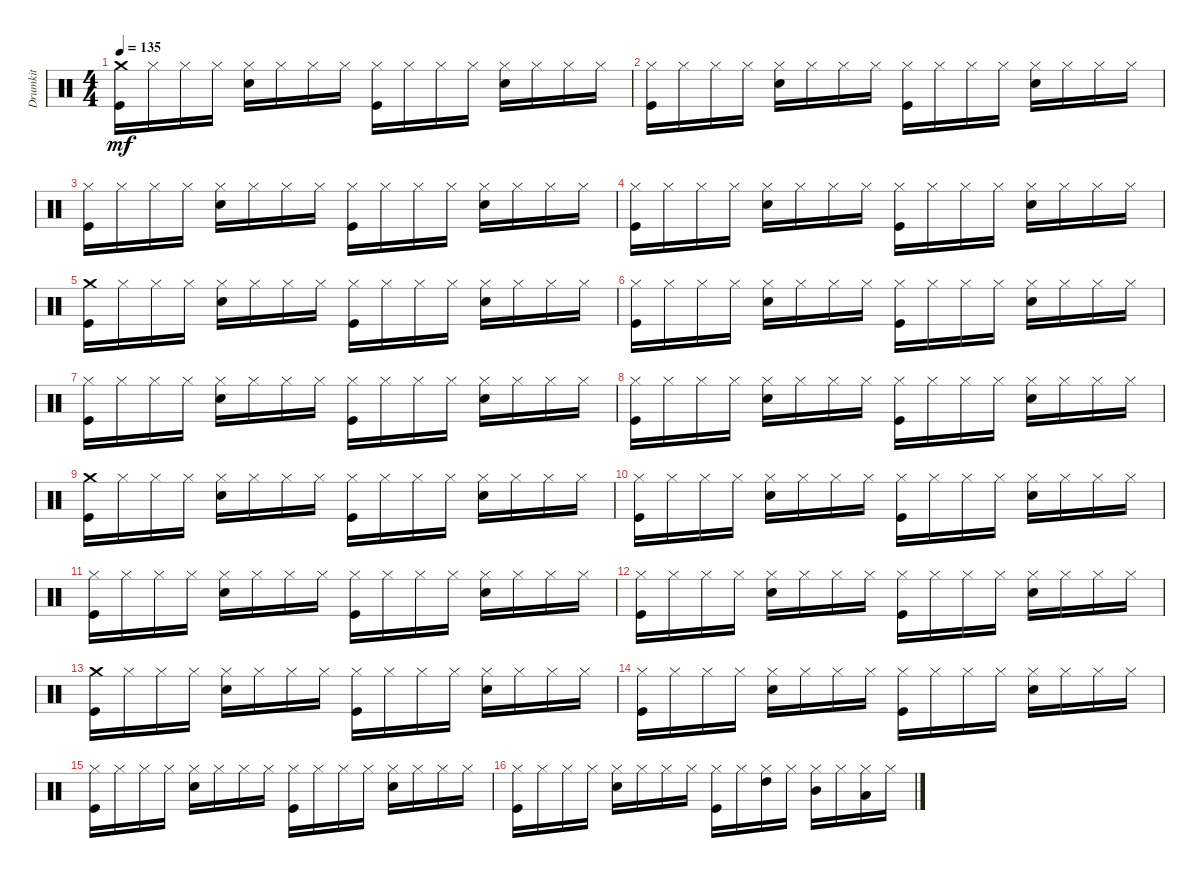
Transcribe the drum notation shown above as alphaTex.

\track ("Drumkit" "Drumkit") {instrument percussion}
\staff {score}
\articulation defaults
\ts (4 4)
\tempo 135
\clef neutral
\ks c
("Crash medium (hit)" "Kick (hit)").16{dy mf} "Hi-Hat (closed)".16 "Hi-Hat (closed)".16 "Hi-Hat (closed)".16 ("Hi-Hat (closed)" "Snare (hit) 2").16 "Hi-Hat (closed)".16 "Hi-Hat (closed)".16 "Hi-Hat (closed)".16 ("Hi-Hat (closed)" "Kick (hit)").16 "Hi-Hat (closed)".16 "Hi-Hat (closed)".16 "Hi-Hat (closed)".16 ("Hi-Hat (closed)" "Snare (hit) 2").16 "Hi-Hat (closed)".16 "Hi-Hat (closed)".16 "Hi-Hat (closed)".16 |
("Hi-Hat (closed)" "Kick (hit)").16 "Hi-Hat (closed)".16 "Hi-Hat (closed)".16 "Hi-Hat (closed)".16 ("Hi-Hat (closed)" "Snare (hit) 2").16 "Hi-Hat (closed)".16 "Hi-Hat (closed)".16 "Hi-Hat (closed)".16 ("Hi-Hat (closed)" "Kick (hit)").16 "Hi-Hat (closed)".16 "Hi-Hat (closed)".16 "Hi-Hat (closed)".16 ("Hi-Hat (closed)" "Snare (hit) 2").16 "Hi-Hat (closed)".16 "Hi-Hat (closed)".16 "Hi-Hat (closed)".16 |
("Hi-Hat (closed)" "Kick (hit)").16 "Hi-Hat (closed)".16 "Hi-Hat (closed)".16 "Hi-Hat (closed)".16 ("Hi-Hat (closed)" "Snare (hit) 2").16 "Hi-Hat (closed)".16 "Hi-Hat (closed)".16 "Hi-Hat (closed)".16 ("Hi-Hat (closed)" "Kick (hit)").16 "Hi-Hat (closed)".16 "Hi-Hat (closed)".16 "Hi-Hat (closed)".16 ("Hi-Hat (closed)" "Snare (hit) 2").16 "Hi-Hat (closed)".16 "Hi-Hat (closed)".16 "Hi-Hat (closed)".16 |
("Hi-Hat (closed)" "Kick (hit)").16 "Hi-Hat (closed)".16 "Hi-Hat (closed)".16 "Hi-Hat (closed)".16 ("Hi-Hat (closed)" "Snare (hit) 2").16 "Hi-Hat (closed)".16 "Hi-Hat (closed)".16 "Hi-Hat (closed)".16 ("Hi-Hat (closed)" "Kick (hit)").16 "Hi-Hat (closed)".16 "Hi-Hat (closed)".16 "Hi-Hat (closed)".16 ("Hi-Hat (closed)" "Snare (hit) 2").16 "Hi-Hat (closed)".16 "Hi-Hat (closed)".16 "Hi-Hat (closed)".16 |
("Crash medium (hit)" "Kick (hit)").16 "Hi-Hat (closed)".16 "Hi-Hat (closed)".16 "Hi-Hat (closed)".16 ("Hi-Hat (closed)" "Snare (hit) 2").16 "Hi-Hat (closed)".16 "Hi-Hat (closed)".16 "Hi-Hat (closed)".16 ("Hi-Hat (closed)" "Kick (hit)").16 "Hi-Hat (closed)".16 "Hi-Hat (closed)".16 "Hi-Hat (closed)".16 ("Hi-Hat (closed)" "Snare (hit) 2").16 "Hi-Hat (closed)".16 "Hi-Hat (closed)".16 "Hi-Hat (closed)".16 |
("Hi-Hat (closed)" "Kick (hit)").16 "Hi-Hat (closed)".16 "Hi-Hat (closed)".16 "Hi-Hat (closed)".16 ("Hi-Hat (closed)" "Snare (hit) 2").16 "Hi-Hat (closed)".16 "Hi-Hat (closed)".16 "Hi-Hat (closed)".16 ("Hi-Hat (closed)" "Kick (hit)").16 "Hi-Hat (closed)".16 "Hi-Hat (closed)".16 "Hi-Hat (closed)".16 ("Hi-Hat (closed)" "Snare (hit) 2").16 "Hi-Hat (closed)".16 "Hi-Hat (closed)".16 "Hi-Hat (closed)".16 |
("Hi-Hat (closed)" "Kick (hit)").16 "Hi-Hat (closed)".16 "Hi-Hat (closed)".16 "Hi-Hat (closed)".16 ("Hi-Hat (closed)" "Snare (hit) 2").16 "Hi-Hat (closed)".16 "Hi-Hat (closed)".16 "Hi-Hat (closed)".16 ("Hi-Hat (closed)" "Kick (hit)").16 "Hi-Hat (closed)".16 "Hi-Hat (closed)".16 "Hi-Hat (closed)".16 ("Hi-Hat (closed)" "Snare (hit) 2").16 "Hi-Hat (closed)".16 "Hi-Hat (closed)".16 "Hi-Hat (closed)".16 |
("Hi-Hat (closed)" "Kick (hit)").16 "Hi-Hat (closed)".16 "Hi-Hat (closed)".16 "Hi-Hat (closed)".16 ("Hi-Hat (closed)" "Snare (hit) 2").16 "Hi-Hat (closed)".16 "Hi-Hat (closed)".16 "Hi-Hat (closed)".16 ("Hi-Hat (closed)" "Kick (hit)").16 "Hi-Hat (closed)".16 "Hi-Hat (closed)".16 "Hi-Hat (closed)".16 ("Hi-Hat (closed)" "Snare (hit) 2").16 "Hi-Hat (closed)".16 "Hi-Hat (closed)".16 "Hi-Hat (closed)".16 |
("Crash medium (hit)" "Kick (hit)").16 "Hi-Hat (closed)".16 "Hi-Hat (closed)".16 "Hi-Hat (closed)".16 ("Hi-Hat (closed)" "Snare (hit) 2").16 "Hi-Hat (closed)".16 "Hi-Hat (closed)".16 "Hi-Hat (closed)".16 ("Hi-Hat (closed)" "Kick (hit)").16 "Hi-Hat (closed)".16 "Hi-Hat (closed)".16 "Hi-Hat (closed)".16 ("Hi-Hat (closed)" "Snare (hit) 2").16 "Hi-Hat (closed)".16 "Hi-Hat (closed)".16 "Hi-Hat (closed)".16 |
("Hi-Hat (closed)" "Kick (hit)").16 "Hi-Hat (closed)".16 "Hi-Hat (closed)".16 "Hi-Hat (closed)".16 ("Hi-Hat (closed)" "Snare (hit) 2").16 "Hi-Hat (closed)".16 "Hi-Hat (closed)".16 "Hi-Hat (closed)".16 ("Hi-Hat (closed)" "Kick (hit)").16 "Hi-Hat (closed)".16 "Hi-Hat (closed)".16 "Hi-Hat (closed)".16 ("Hi-Hat (closed)" "Snare (hit) 2").16 "Hi-Hat (closed)".16 "Hi-Hat (closed)".16 "Hi-Hat (closed)".16 |
("Hi-Hat (closed)" "Kick (hit)").16 "Hi-Hat (closed)".16 "Hi-Hat (closed)".16 "Hi-Hat (closed)".16 ("Hi-Hat (closed)" "Snare (hit) 2").16 "Hi-Hat (closed)".16 "Hi-Hat (closed)".16 "Hi-Hat (closed)".16 ("Hi-Hat (closed)" "Kick (hit)").16 "Hi-Hat (closed)".16 "Hi-Hat (closed)".16 "Hi-Hat (closed)".16 ("Hi-Hat (closed)" "Snare (hit) 2").16 "Hi-Hat (closed)".16 "Hi-Hat (closed)".16 "Hi-Hat (closed)".16 |
("Hi-Hat (closed)" "Kick (hit)").16 "Hi-Hat (closed)".16 "Hi-Hat (closed)".16 "Hi-Hat (closed)".16 ("Hi-Hat (closed)" "Snare (hit) 2").16 "Hi-Hat (closed)".16 "Hi-Hat (closed)".16 "Hi-Hat (closed)".16 ("Hi-Hat (closed)" "Kick (hit)").16 "Hi-Hat (closed)".16 "Hi-Hat (closed)".16 "Hi-Hat (closed)".16 ("Hi-Hat (closed)" "Snare (hit) 2").16 "Hi-Hat (closed)".16 "Hi-Hat (closed)".16 "Hi-Hat (closed)".16 |
("Crash medium (hit)" "Kick (hit)").16 "Hi-Hat (closed)".16 "Hi-Hat (closed)".16 "Hi-Hat (closed)".16 ("Hi-Hat (closed)" "Snare (hit) 2").16 "Hi-Hat (closed)".16 "Hi-Hat (closed)".16 "Hi-Hat (closed)".16 ("Hi-Hat (closed)" "Kick (hit)").16 "Hi-Hat (closed)".16 "Hi-Hat (closed)".16 "Hi-Hat (closed)".16 ("Hi-Hat (closed)" "Snare (hit) 2").16 "Hi-Hat (closed)".16 "Hi-Hat (closed)".16 "Hi-Hat (closed)".16 |
("Hi-Hat (closed)" "Kick (hit)").16 "Hi-Hat (closed)".16 "Hi-Hat (closed)".16 "Hi-Hat (closed)".16 ("Hi-Hat (closed)" "Snare (hit) 2").16 "Hi-Hat (closed)".16 "Hi-Hat (closed)".16 "Hi-Hat (closed)".16 ("Hi-Hat (closed)" "Kick (hit)").16 "Hi-Hat (closed)".16 "Hi-Hat (closed)".16 "Hi-Hat (closed)".16 ("Hi-Hat (closed)" "Snare (hit) 2").16 "Hi-Hat (closed)".16 "Hi-Hat (closed)".16 "Hi-Hat (closed)".16 |
("Hi-Hat (closed)" "Kick (hit)").16 "Hi-Hat (closed)".16 "Hi-Hat (closed)".16 "Hi-Hat (closed)".16 ("Hi-Hat (closed)" "Snare (hit) 2").16 "Hi-Hat (closed)".16 "Hi-Hat (closed)".16 "Hi-Hat (closed)".16 ("Hi-Hat (closed)" "Kick (hit)").16 "Hi-Hat (closed)".16 "Hi-Hat (closed)".16 "Hi-Hat (closed)".16 ("Hi-Hat (closed)" "Snare (hit) 2").16 "Hi-Hat (closed)".16 "Hi-Hat (closed)".16 "Hi-Hat (closed)".16 |
("Hi-Hat (closed)" "Kick (hit)").16 "Hi-Hat (closed)".16 "Hi-Hat (closed)".16 "Hi-Hat (closed)".16 ("Hi-Hat (closed)" "Snare (hit) 2").16 "Hi-Hat (closed)".16 "Hi-Hat (closed)".16 "Hi-Hat (closed)".16 ("Hi-Hat (closed)" "Kick (hit)").16 "Hi-Hat (closed)".16 ("Hi-Hat (closed)" "High Tom (hit)").16 "Hi-Hat (closed)".16 ("Hi-Hat (closed)" "Mid Tom (hit)").16 "Hi-Hat (closed)".16 ("Hi-Hat (closed)" "Low Tom (hit)").16 "Hi-Hat (closed)".16
